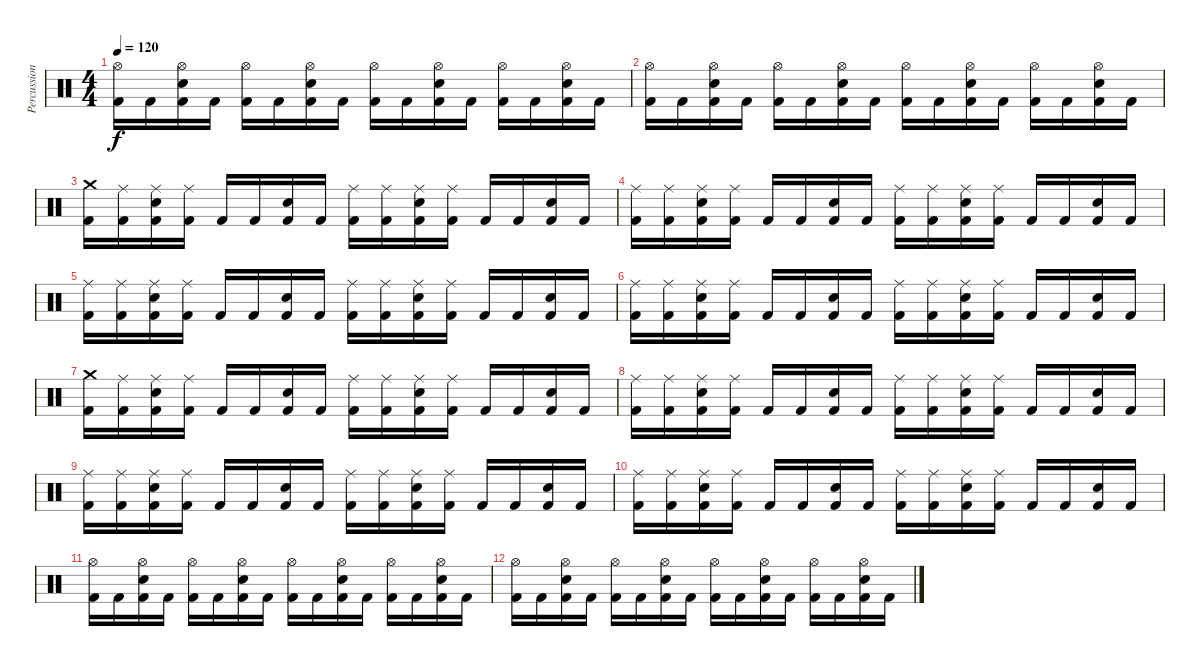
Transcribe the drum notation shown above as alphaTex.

\track ("Percussions" "Percussion") {instrument percussion}
\staff {score}
\articulation defaults
\ts (4 4)
\tempo 120
\clef neutral
\ks c
("Kick (hit) 2" "Hi-Hat (open)").16{dy f} "Kick (hit) 2".16 ("Kick (hit) 2" "Electric Snare (hit)" "Hi-Hat (open)").16 "Kick (hit) 2".16 ("Kick (hit) 2" "Hi-Hat (open)").16 "Kick (hit) 2".16 ("Kick (hit) 2" "Electric Snare (hit)" "Hi-Hat (open)").16 "Kick (hit) 2".16 ("Kick (hit) 2" "Hi-Hat (open)").16 "Kick (hit) 2".16 ("Kick (hit) 2" "Electric Snare (hit)" "Hi-Hat (open)").16 "Kick (hit) 2".16 ("Kick (hit) 2" "Hi-Hat (open)").16 "Kick (hit) 2".16 ("Kick (hit) 2" "Electric Snare (hit)" "Hi-Hat (open)").16 "Kick (hit) 2".16 |
("Kick (hit) 2" "Hi-Hat (open)").16 "Kick (hit) 2".16 ("Kick (hit) 2" "Electric Snare (hit)" "Hi-Hat (open)").16 "Kick (hit) 2".16 ("Kick (hit) 2" "Hi-Hat (open)").16 "Kick (hit) 2".16 ("Kick (hit) 2" "Electric Snare (hit)" "Hi-Hat (open)").16 "Kick (hit) 2".16 ("Kick (hit) 2" "Hi-Hat (open)").16 "Kick (hit) 2".16 ("Kick (hit) 2" "Electric Snare (hit)" "Hi-Hat (open)").16 "Kick (hit) 2".16 ("Kick (hit) 2" "Hi-Hat (open)").16 "Kick (hit) 2".16 ("Kick (hit) 2" "Electric Snare (hit)" "Hi-Hat (open)").16 "Kick (hit) 2".16 |
("Kick (hit) 2" "Crash medium (hit)").16 ("Kick (hit) 2" "Ride (middle)").16 ("Kick (hit) 2" "Electric Snare (hit)" "Ride (middle)").16 ("Kick (hit) 2" "Ride (middle)").16 "Kick (hit) 2".16 "Kick (hit) 2".16 ("Kick (hit) 2" "Electric Snare (hit)").16 "Kick (hit) 2".16 ("Kick (hit) 2" "Ride (middle)").16 ("Kick (hit) 2" "Ride (middle)").16 ("Kick (hit) 2" "Electric Snare (hit)" "Ride (middle)").16 ("Kick (hit) 2" "Ride (middle)").16 "Kick (hit) 2".16 "Kick (hit) 2".16 ("Kick (hit) 2" "Electric Snare (hit)").16 "Kick (hit) 2".16 |
("Kick (hit) 2" "Ride (middle)").16 ("Kick (hit) 2" "Ride (middle)").16 ("Kick (hit) 2" "Electric Snare (hit)" "Ride (middle)").16 ("Kick (hit) 2" "Ride (middle)").16 "Kick (hit) 2".16 "Kick (hit) 2".16 ("Kick (hit) 2" "Electric Snare (hit)").16 "Kick (hit) 2".16 ("Kick (hit) 2" "Ride (middle)").16 ("Kick (hit) 2" "Ride (middle)").16 ("Kick (hit) 2" "Electric Snare (hit)" "Ride (middle)").16 ("Kick (hit) 2" "Ride (middle)").16 "Kick (hit) 2".16 "Kick (hit) 2".16 ("Kick (hit) 2" "Electric Snare (hit)").16 "Kick (hit) 2".16 |
("Kick (hit) 2" "Ride (middle)").16 ("Kick (hit) 2" "Ride (middle)").16 ("Kick (hit) 2" "Electric Snare (hit)" "Ride (middle)").16 ("Kick (hit) 2" "Ride (middle)").16 "Kick (hit) 2".16 "Kick (hit) 2".16 ("Kick (hit) 2" "Electric Snare (hit)").16 "Kick (hit) 2".16 ("Kick (hit) 2" "Ride (middle)").16 ("Kick (hit) 2" "Ride (middle)").16 ("Kick (hit) 2" "Electric Snare (hit)" "Ride (middle)").16 ("Kick (hit) 2" "Ride (middle)").16 "Kick (hit) 2".16 "Kick (hit) 2".16 ("Kick (hit) 2" "Electric Snare (hit)").16 "Kick (hit) 2".16 |
("Kick (hit) 2" "Ride (middle)").16 ("Kick (hit) 2" "Ride (middle)").16 ("Kick (hit) 2" "Electric Snare (hit)" "Ride (middle)").16 ("Kick (hit) 2" "Ride (middle)").16 "Kick (hit) 2".16 "Kick (hit) 2".16 ("Kick (hit) 2" "Electric Snare (hit)").16 "Kick (hit) 2".16 ("Kick (hit) 2" "Ride (middle)").16 ("Kick (hit) 2" "Ride (middle)").16 ("Kick (hit) 2" "Electric Snare (hit)" "Ride (middle)").16 ("Kick (hit) 2" "Ride (middle)").16 "Kick (hit) 2".16 "Kick (hit) 2".16 ("Kick (hit) 2" "Electric Snare (hit)").16 "Kick (hit) 2".16 |
("Kick (hit) 2" "Crash medium (hit)").16 ("Kick (hit) 2" "Ride (middle)").16 ("Kick (hit) 2" "Electric Snare (hit)" "Ride (middle)").16 ("Kick (hit) 2" "Ride (middle)").16 "Kick (hit) 2".16 "Kick (hit) 2".16 ("Kick (hit) 2" "Electric Snare (hit)").16 "Kick (hit) 2".16 ("Kick (hit) 2" "Ride (middle)").16 ("Kick (hit) 2" "Ride (middle)").16 ("Kick (hit) 2" "Electric Snare (hit)" "Ride (middle)").16 ("Kick (hit) 2" "Ride (middle)").16 "Kick (hit) 2".16 "Kick (hit) 2".16 ("Kick (hit) 2" "Electric Snare (hit)").16 "Kick (hit) 2".16 |
("Kick (hit) 2" "Ride (middle)").16 ("Kick (hit) 2" "Ride (middle)").16 ("Kick (hit) 2" "Electric Snare (hit)" "Ride (middle)").16 ("Kick (hit) 2" "Ride (middle)").16 "Kick (hit) 2".16 "Kick (hit) 2".16 ("Kick (hit) 2" "Electric Snare (hit)").16 "Kick (hit) 2".16 ("Kick (hit) 2" "Ride (middle)").16 ("Kick (hit) 2" "Ride (middle)").16 ("Kick (hit) 2" "Electric Snare (hit)" "Ride (middle)").16 ("Kick (hit) 2" "Ride (middle)").16 "Kick (hit) 2".16 "Kick (hit) 2".16 ("Kick (hit) 2" "Electric Snare (hit)").16 "Kick (hit) 2".16 |
("Kick (hit) 2" "Ride (middle)").16 ("Kick (hit) 2" "Ride (middle)").16 ("Kick (hit) 2" "Electric Snare (hit)" "Ride (middle)").16 ("Kick (hit) 2" "Ride (middle)").16 "Kick (hit) 2".16 "Kick (hit) 2".16 ("Kick (hit) 2" "Electric Snare (hit)").16 "Kick (hit) 2".16 ("Kick (hit) 2" "Ride (middle)").16 ("Kick (hit) 2" "Ride (middle)").16 ("Kick (hit) 2" "Electric Snare (hit)" "Ride (middle)").16 ("Kick (hit) 2" "Ride (middle)").16 "Kick (hit) 2".16 "Kick (hit) 2".16 ("Kick (hit) 2" "Electric Snare (hit)").16 "Kick (hit) 2".16 |
("Kick (hit) 2" "Ride (middle)").16 ("Kick (hit) 2" "Ride (middle)").16 ("Kick (hit) 2" "Electric Snare (hit)" "Ride (middle)").16 ("Kick (hit) 2" "Ride (middle)").16 "Kick (hit) 2".16 "Kick (hit) 2".16 ("Kick (hit) 2" "Electric Snare (hit)").16 "Kick (hit) 2".16 ("Kick (hit) 2" "Ride (middle)").16 ("Kick (hit) 2" "Ride (middle)").16 ("Kick (hit) 2" "Electric Snare (hit)" "Ride (middle)").16 ("Kick (hit) 2" "Ride (middle)").16 "Kick (hit) 2".16 "Kick (hit) 2".16 ("Kick (hit) 2" "Electric Snare (hit)").16 "Kick (hit) 2".16 |
("Kick (hit) 2" "Hi-Hat (open)").16 "Kick (hit) 2".16 ("Kick (hit) 2" "Electric Snare (hit)" "Hi-Hat (open)").16 "Kick (hit) 2".16 ("Kick (hit) 2" "Hi-Hat (open)").16 "Kick (hit) 2".16 ("Kick (hit) 2" "Electric Snare (hit)" "Hi-Hat (open)").16 "Kick (hit) 2".16 ("Kick (hit) 2" "Hi-Hat (open)").16 "Kick (hit) 2".16 ("Kick (hit) 2" "Electric Snare (hit)" "Hi-Hat (open)").16 "Kick (hit) 2".16 ("Kick (hit) 2" "Hi-Hat (open)").16 "Kick (hit) 2".16 ("Kick (hit) 2" "Electric Snare (hit)" "Hi-Hat (open)").16 "Kick (hit) 2".16 |
("Kick (hit) 2" "Hi-Hat (open)").16 "Kick (hit) 2".16 ("Kick (hit) 2" "Electric Snare (hit)" "Hi-Hat (open)").16 "Kick (hit) 2".16 ("Kick (hit) 2" "Hi-Hat (open)").16 "Kick (hit) 2".16 ("Kick (hit) 2" "Electric Snare (hit)" "Hi-Hat (open)").16 "Kick (hit) 2".16 ("Kick (hit) 2" "Hi-Hat (open)").16 "Kick (hit) 2".16 ("Kick (hit) 2" "Electric Snare (hit)" "Hi-Hat (open)").16 "Kick (hit) 2".16 ("Kick (hit) 2" "Hi-Hat (open)").16 "Kick (hit) 2".16 ("Kick (hit) 2" "Electric Snare (hit)" "Hi-Hat (open)").16 "Kick (hit) 2".16
